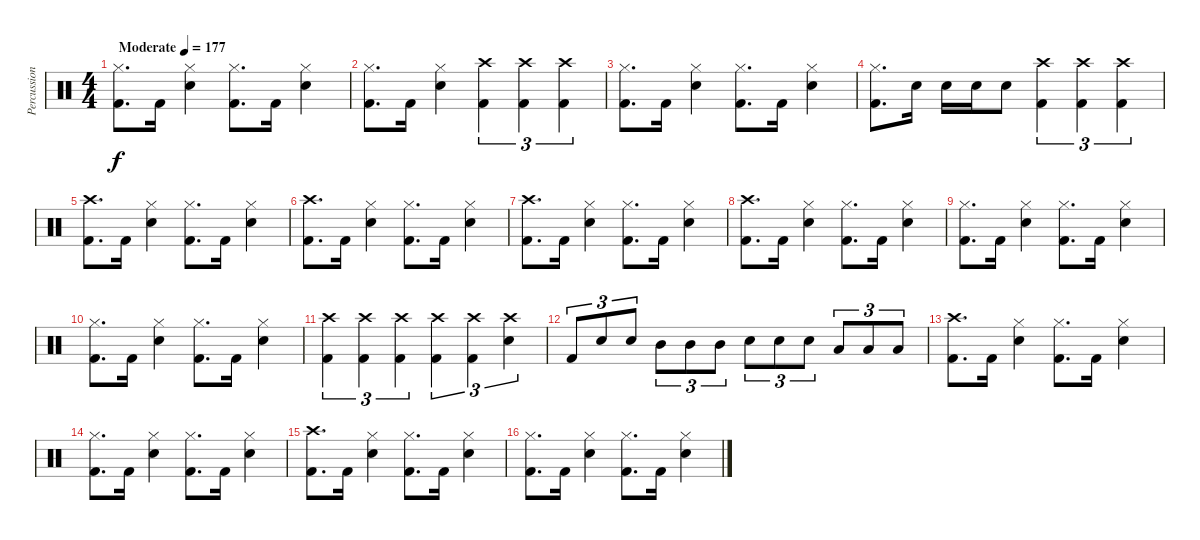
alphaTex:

\track ("Percussion" "Percussion") {instrument percussion}
\staff {score}
\articulation defaults
\ts (4 4)
\tempo (177 "Moderate")
\clef neutral
\ks c
("Hi-Hat (closed)" "Kick (hit) 2").8{d dy f} "Kick (hit) 2".16 ("Hi-Hat (closed)" "Snare (hit) 2").4 ("Hi-Hat (closed)" "Kick (hit) 2").8{d} "Kick (hit) 2".16 ("Hi-Hat (closed)" "Snare (hit) 2").4 |
("Hi-Hat (closed)" "Kick (hit) 2").8{d} "Kick (hit) 2".16 ("Hi-Hat (closed)" "Snare (hit) 2").4 ("Crash high (hit)" "Kick (hit) 2").4{tu (3 2)} ("Crash high (hit)" "Kick (hit) 2").4{tu (3 2)} ("Crash high (hit)" "Kick (hit) 2").4{tu (3 2)} |
("Hi-Hat (closed)" "Kick (hit) 2").8{d} "Kick (hit) 2".16 ("Hi-Hat (closed)" "Snare (hit) 2").4 ("Hi-Hat (closed)" "Kick (hit) 2").8{d} "Kick (hit) 2".16 ("Hi-Hat (closed)" "Snare (hit) 2").4 |
("Hi-Hat (closed)" "Kick (hit) 2").8{d} "Snare (hit) 2".16 "Snare (hit) 2".16 "Snare (hit) 2".16 "Snare (hit) 2".8 ("Crash high (hit)" "Kick (hit) 2").4{tu (3 2)} ("Crash high (hit)" "Kick (hit) 2").4{tu (3 2)} ("Crash high (hit)" "Kick (hit) 2").4{tu (3 2)} |
("Crash high (hit)" "Kick (hit) 2").8{d} "Kick (hit) 2".16 ("Hi-Hat (closed)" "Snare (hit) 2").4 ("Hi-Hat (closed)" "Kick (hit) 2").8{d} "Kick (hit) 2".16 ("Hi-Hat (closed)" "Snare (hit) 2").4 |
("Crash high (hit)" "Kick (hit) 2").8{d} "Kick (hit) 2".16 ("Hi-Hat (closed)" "Snare (hit) 2").4 ("Hi-Hat (closed)" "Kick (hit) 2").8{d} "Kick (hit) 2".16 ("Hi-Hat (closed)" "Snare (hit) 2").4 |
("Crash high (hit)" "Kick (hit) 2").8{d} "Kick (hit) 2".16 ("Hi-Hat (closed)" "Snare (hit) 2").4 ("Hi-Hat (closed)" "Kick (hit) 2").8{d} "Kick (hit) 2".16 ("Hi-Hat (closed)" "Snare (hit) 2").4 |
("Crash high (hit)" "Kick (hit) 2").8{d} "Kick (hit) 2".16 ("Hi-Hat (closed)" "Snare (hit) 2").4 ("Hi-Hat (closed)" "Kick (hit) 2").8{d} "Kick (hit) 2".16 ("Hi-Hat (closed)" "Snare (hit) 2").4 |
("Hi-Hat (closed)" "Kick (hit) 2").8{d} "Kick (hit) 2".16 ("Hi-Hat (closed)" "Snare (hit) 2").4 ("Hi-Hat (closed)" "Kick (hit) 2").8{d} "Kick (hit) 2".16 ("Hi-Hat (closed)" "Snare (hit) 2").4 |
("Hi-Hat (closed)" "Kick (hit) 2").8{d} "Kick (hit) 2".16 ("Hi-Hat (closed)" "Snare (hit) 2").4 ("Hi-Hat (closed)" "Kick (hit) 2").8{d} "Kick (hit) 2".16 ("Hi-Hat (closed)" "Snare (hit) 2").4 |
("Crash high (hit)" "Kick (hit) 2").4{tu (3 2)} ("Crash high (hit)" "Kick (hit) 2").4{tu (3 2)} ("Crash high (hit)" "Kick (hit) 2").4{tu (3 2)} ("Crash high (hit)" "Kick (hit) 2").4{tu (3 2)} ("Crash high (hit)" "Kick (hit) 2").4{tu (3 2)} ("Crash high (hit)" "Snare (hit) 2").4{tu (3 2)} |
"Kick (hit) 2".8{tu (3 2)} "Snare (hit) 2".8{tu (3 2)} "Snare (hit) 2".8{tu (3 2)} "Mid Tom (hit)".8{tu (3 2)} "Mid Tom (hit)".8{tu (3 2)} "Mid Tom (hit)".8{tu (3 2)} "Snare (hit) 2".8{tu (3 2)} "Snare (hit) 2".8{tu (3 2)} "Snare (hit) 2".8{tu (3 2)} "Low Tom (hit)".8{tu (3 2)} "Low Tom (hit)".8{tu (3 2)} "Low Tom (hit)".8{tu (3 2)} |
("Crash high (hit)" "Kick (hit) 2").8{d} "Kick (hit) 2".16 ("Hi-Hat (closed)" "Snare (hit) 2").4 ("Hi-Hat (closed)" "Kick (hit) 2").8{d} "Kick (hit) 2".16 ("Hi-Hat (closed)" "Snare (hit) 2").4 |
("Hi-Hat (closed)" "Kick (hit) 2").8{d} "Kick (hit) 2".16 ("Hi-Hat (closed)" "Snare (hit) 2").4 ("Hi-Hat (closed)" "Kick (hit) 2").8{d} "Kick (hit) 2".16 ("Hi-Hat (closed)" "Snare (hit) 2").4 |
("Crash high (hit)" "Kick (hit) 2").8{d} "Kick (hit) 2".16 ("Hi-Hat (closed)" "Snare (hit) 2").4 ("Hi-Hat (closed)" "Kick (hit) 2").8{d} "Kick (hit) 2".16 ("Hi-Hat (closed)" "Snare (hit) 2").4 |
("Hi-Hat (closed)" "Kick (hit) 2").8{d} "Kick (hit) 2".16 ("Hi-Hat (closed)" "Snare (hit) 2").4 ("Hi-Hat (closed)" "Kick (hit) 2").8{d} "Kick (hit) 2".16 ("Hi-Hat (closed)" "Snare (hit) 2").4
